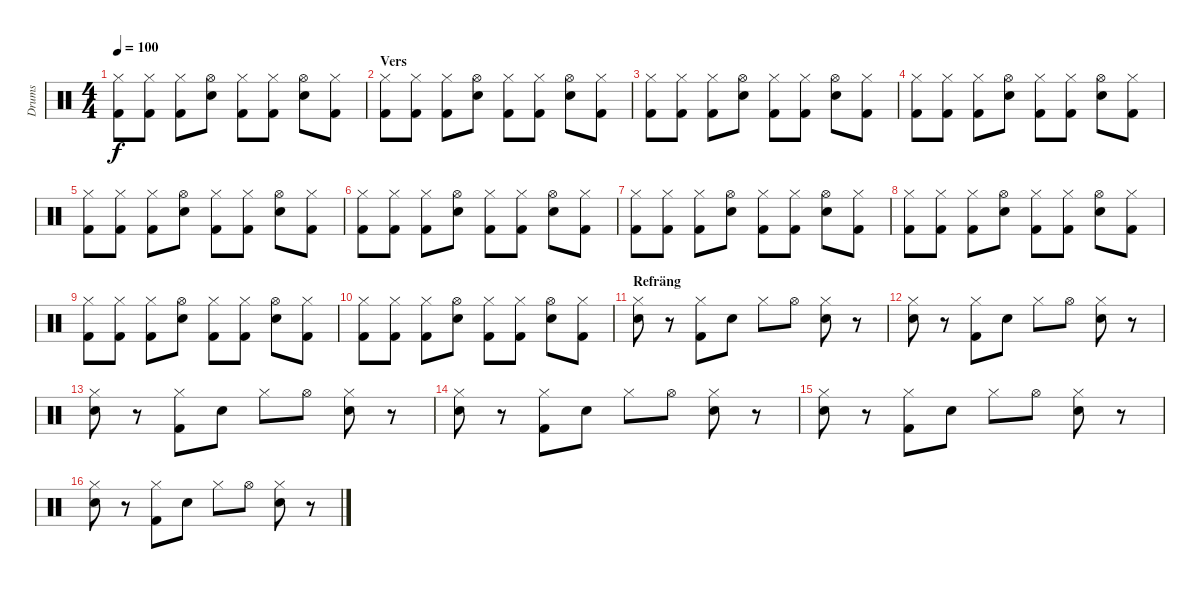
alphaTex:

\track ("Drums" "Drums") {instrument percussion}
\staff {score}
\articulation defaults
\ts (4 4)
\tempo 100
\clef neutral
\ks c
("Hi-Hat (closed)" "Kick (hit) 2").8{dy f} ("Hi-Hat (closed)" "Kick (hit) 2").8 ("Hi-Hat (closed)" "Kick (hit) 2").8 ("Hi-Hat (open)" "Snare (hit) 2").8 ("Hi-Hat (closed)" "Kick (hit) 2").8 ("Hi-Hat (closed)" "Kick (hit) 2").8 ("Hi-Hat (open)" "Snare (hit) 2").8 ("Hi-Hat (closed)" "Kick (hit) 2").8 |
\section ("" "Vers")
("Hi-Hat (closed)" "Kick (hit) 2").8 ("Hi-Hat (closed)" "Kick (hit) 2").8 ("Hi-Hat (closed)" "Kick (hit) 2").8 ("Hi-Hat (open)" "Snare (hit) 2").8 ("Hi-Hat (closed)" "Kick (hit) 2").8 ("Hi-Hat (closed)" "Kick (hit) 2").8 ("Hi-Hat (open)" "Snare (hit) 2").8 ("Hi-Hat (closed)" "Kick (hit) 2").8 |
("Hi-Hat (closed)" "Kick (hit) 2").8 ("Hi-Hat (closed)" "Kick (hit) 2").8 ("Hi-Hat (closed)" "Kick (hit) 2").8 ("Hi-Hat (open)" "Snare (hit) 2").8 ("Hi-Hat (closed)" "Kick (hit) 2").8 ("Hi-Hat (closed)" "Kick (hit) 2").8 ("Hi-Hat (open)" "Snare (hit) 2").8 ("Hi-Hat (closed)" "Kick (hit) 2").8 |
("Hi-Hat (closed)" "Kick (hit) 2").8 ("Hi-Hat (closed)" "Kick (hit) 2").8 ("Hi-Hat (closed)" "Kick (hit) 2").8 ("Hi-Hat (open)" "Snare (hit) 2").8 ("Hi-Hat (closed)" "Kick (hit) 2").8 ("Hi-Hat (closed)" "Kick (hit) 2").8 ("Hi-Hat (open)" "Snare (hit) 2").8 ("Hi-Hat (closed)" "Kick (hit) 2").8 |
("Hi-Hat (closed)" "Kick (hit) 2").8 ("Hi-Hat (closed)" "Kick (hit) 2").8 ("Hi-Hat (closed)" "Kick (hit) 2").8 ("Hi-Hat (open)" "Snare (hit) 2").8 ("Hi-Hat (closed)" "Kick (hit) 2").8 ("Hi-Hat (closed)" "Kick (hit) 2").8 ("Hi-Hat (open)" "Snare (hit) 2").8 ("Hi-Hat (closed)" "Kick (hit) 2").8 |
("Hi-Hat (closed)" "Kick (hit) 2").8 ("Hi-Hat (closed)" "Kick (hit) 2").8 ("Hi-Hat (closed)" "Kick (hit) 2").8 ("Hi-Hat (open)" "Snare (hit) 2").8 ("Hi-Hat (closed)" "Kick (hit) 2").8 ("Hi-Hat (closed)" "Kick (hit) 2").8 ("Hi-Hat (open)" "Snare (hit) 2").8 ("Hi-Hat (closed)" "Kick (hit) 2").8 |
("Hi-Hat (closed)" "Kick (hit) 2").8 ("Hi-Hat (closed)" "Kick (hit) 2").8 ("Hi-Hat (closed)" "Kick (hit) 2").8 ("Hi-Hat (open)" "Snare (hit) 2").8 ("Hi-Hat (closed)" "Kick (hit) 2").8 ("Hi-Hat (closed)" "Kick (hit) 2").8 ("Hi-Hat (open)" "Snare (hit) 2").8 ("Hi-Hat (closed)" "Kick (hit) 2").8 |
("Hi-Hat (closed)" "Kick (hit) 2").8 ("Hi-Hat (closed)" "Kick (hit) 2").8 ("Hi-Hat (closed)" "Kick (hit) 2").8 ("Hi-Hat (open)" "Snare (hit) 2").8 ("Hi-Hat (closed)" "Kick (hit) 2").8 ("Hi-Hat (closed)" "Kick (hit) 2").8 ("Hi-Hat (open)" "Snare (hit) 2").8 ("Hi-Hat (closed)" "Kick (hit) 2").8 |
("Hi-Hat (closed)" "Kick (hit) 2").8 ("Hi-Hat (closed)" "Kick (hit) 2").8 ("Hi-Hat (closed)" "Kick (hit) 2").8 ("Hi-Hat (open)" "Snare (hit) 2").8 ("Hi-Hat (closed)" "Kick (hit) 2").8 ("Hi-Hat (closed)" "Kick (hit) 2").8 ("Hi-Hat (open)" "Snare (hit) 2").8 ("Hi-Hat (closed)" "Kick (hit) 2").8 |
("Hi-Hat (closed)" "Kick (hit) 2").8 ("Hi-Hat (closed)" "Kick (hit) 2").8 ("Hi-Hat (closed)" "Kick (hit) 2").8 ("Hi-Hat (open)" "Snare (hit) 2").8 ("Hi-Hat (closed)" "Kick (hit) 2").8 ("Hi-Hat (closed)" "Kick (hit) 2").8 ("Hi-Hat (open)" "Snare (hit) 2").8 ("Hi-Hat (closed)" "Kick (hit) 2").8 |
\section ("" "Refräng")
("Hi-Hat (closed)" "Snare (hit) 2").8 r.8 ("Hi-Hat (closed)" "Kick (hit) 2").8 "Snare (hit) 2".8 "Hi-Hat (closed)".8 "Hi-Hat (open)".8 ("Hi-Hat (closed)" "Snare (hit) 2").8 r.8 |
("Hi-Hat (closed)" "Snare (hit) 2").8 r.8 ("Hi-Hat (closed)" "Kick (hit) 2").8 "Snare (hit) 2".8 "Hi-Hat (closed)".8 "Hi-Hat (open)".8 ("Hi-Hat (closed)" "Snare (hit) 2").8 r.8 |
("Hi-Hat (closed)" "Snare (hit) 2").8 r.8 ("Hi-Hat (closed)" "Kick (hit) 2").8 "Snare (hit) 2".8 "Hi-Hat (closed)".8 "Hi-Hat (open)".8 ("Hi-Hat (closed)" "Snare (hit) 2").8 r.8 |
("Hi-Hat (closed)" "Snare (hit) 2").8 r.8 ("Hi-Hat (closed)" "Kick (hit) 2").8 "Snare (hit) 2".8 "Hi-Hat (closed)".8 "Hi-Hat (open)".8 ("Hi-Hat (closed)" "Snare (hit) 2").8 r.8 |
("Hi-Hat (closed)" "Snare (hit) 2").8 r.8 ("Hi-Hat (closed)" "Kick (hit) 2").8 "Snare (hit) 2".8 "Hi-Hat (closed)".8 "Hi-Hat (open)".8 ("Hi-Hat (closed)" "Snare (hit) 2").8 r.8 |
("Hi-Hat (closed)" "Snare (hit) 2").8 r.8 ("Hi-Hat (closed)" "Kick (hit) 2").8 "Snare (hit) 2".8 "Hi-Hat (closed)".8 "Hi-Hat (open)".8 ("Hi-Hat (closed)" "Snare (hit) 2").8 r.8
